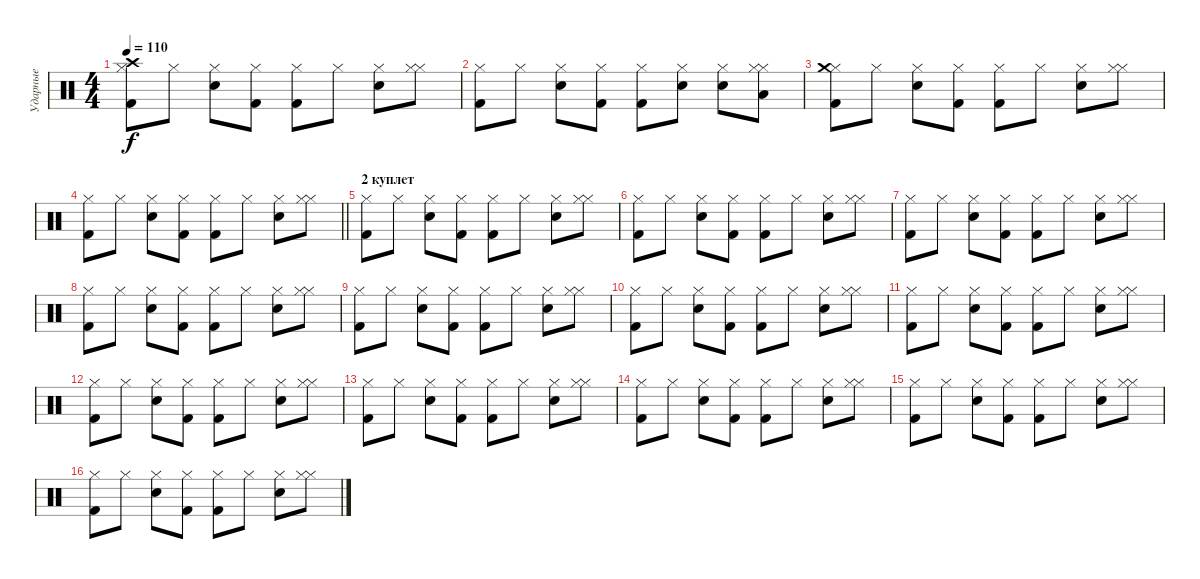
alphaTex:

\track ("Ударные" "Ударные") {instrument percussion}
\staff {score}
\articulation defaults
\ts (4 4)
\tempo 110
\clef neutral
\ks c
("Kick (hit) 2" "Hi-Hat (closed)" "Crash high (hit)").8{dy f} "Hi-Hat (closed)".8 ("Electric Snare (hit)" "Hi-Hat (closed)").8 ("Kick (hit) 2" "Hi-Hat (closed)").8 ("Kick (hit) 2" "Hi-Hat (closed)").8 "Hi-Hat (closed)".8 ("Electric Snare (hit)" "Hi-Hat (closed)").8 ("Hi-Hat (closed)" "Hi-Hat (closed)").8 |
("Kick (hit) 2" "Hi-Hat (closed)").8 "Hi-Hat (closed)".8 ("Electric Snare (hit)" "Hi-Hat (closed)").8 ("Kick (hit) 2" "Hi-Hat (closed)").8 ("Kick (hit) 2" "Hi-Hat (closed)").8 ("Hi-Hat (closed)" "Electric Snare (hit)").8 ("Electric Snare (hit)" "Hi-Hat (closed)").8 ("Hi-Hat (closed)" "Hi-Hat (closed)" "Low Tom (hit)").8 |
("Kick (hit) 2" "Hi-Hat (closed)" "Crash medium (hit)").8 "Hi-Hat (closed)".8 ("Electric Snare (hit)" "Hi-Hat (closed)").8 ("Kick (hit) 2" "Hi-Hat (closed)").8 ("Kick (hit) 2" "Hi-Hat (closed)").8 "Hi-Hat (closed)".8 ("Electric Snare (hit)" "Hi-Hat (closed)").8 ("Hi-Hat (closed)" "Hi-Hat (closed)").8 |
\barLineRight lightlight
("Kick (hit) 2" "Hi-Hat (closed)").8 "Hi-Hat (closed)".8 ("Electric Snare (hit)" "Hi-Hat (closed)").8 ("Kick (hit) 2" "Hi-Hat (closed)").8 ("Kick (hit) 2" "Hi-Hat (closed)").8 "Hi-Hat (closed)".8 ("Electric Snare (hit)" "Hi-Hat (closed)").8 ("Hi-Hat (closed)" "Hi-Hat (closed)").8 |
\section ("" "2 куплет")
("Kick (hit) 2" "Hi-Hat (closed)").8 "Hi-Hat (closed)".8 ("Electric Snare (hit)" "Hi-Hat (closed)").8 ("Kick (hit) 2" "Hi-Hat (closed)").8 ("Kick (hit) 2" "Hi-Hat (closed)").8 "Hi-Hat (closed)".8 ("Electric Snare (hit)" "Hi-Hat (closed)").8 ("Hi-Hat (closed)" "Hi-Hat (closed)").8 |
("Kick (hit) 2" "Hi-Hat (closed)").8 "Hi-Hat (closed)".8 ("Electric Snare (hit)" "Hi-Hat (closed)").8 ("Kick (hit) 2" "Hi-Hat (closed)").8 ("Kick (hit) 2" "Hi-Hat (closed)").8 "Hi-Hat (closed)".8 ("Electric Snare (hit)" "Hi-Hat (closed)").8 ("Hi-Hat (closed)" "Hi-Hat (closed)").8 |
("Kick (hit) 2" "Hi-Hat (closed)").8 "Hi-Hat (closed)".8 ("Electric Snare (hit)" "Hi-Hat (closed)").8 ("Kick (hit) 2" "Hi-Hat (closed)").8 ("Kick (hit) 2" "Hi-Hat (closed)").8 "Hi-Hat (closed)".8 ("Electric Snare (hit)" "Hi-Hat (closed)").8 ("Hi-Hat (closed)" "Hi-Hat (closed)").8 |
("Kick (hit) 2" "Hi-Hat (closed)").8 "Hi-Hat (closed)".8 ("Electric Snare (hit)" "Hi-Hat (closed)").8 ("Kick (hit) 2" "Hi-Hat (closed)").8 ("Kick (hit) 2" "Hi-Hat (closed)").8 "Hi-Hat (closed)".8 ("Electric Snare (hit)" "Hi-Hat (closed)").8 ("Hi-Hat (closed)" "Hi-Hat (closed)").8 |
("Kick (hit) 2" "Hi-Hat (closed)").8 "Hi-Hat (closed)".8 ("Electric Snare (hit)" "Hi-Hat (closed)").8 ("Kick (hit) 2" "Hi-Hat (closed)").8 ("Kick (hit) 2" "Hi-Hat (closed)").8 "Hi-Hat (closed)".8 ("Electric Snare (hit)" "Hi-Hat (closed)").8 ("Hi-Hat (closed)" "Hi-Hat (closed)").8 |
("Kick (hit) 2" "Hi-Hat (closed)").8 "Hi-Hat (closed)".8 ("Electric Snare (hit)" "Hi-Hat (closed)").8 ("Kick (hit) 2" "Hi-Hat (closed)").8 ("Kick (hit) 2" "Hi-Hat (closed)").8 "Hi-Hat (closed)".8 ("Electric Snare (hit)" "Hi-Hat (closed)").8 ("Hi-Hat (closed)" "Hi-Hat (closed)").8 |
("Kick (hit) 2" "Hi-Hat (closed)").8 "Hi-Hat (closed)".8 ("Electric Snare (hit)" "Hi-Hat (closed)").8 ("Kick (hit) 2" "Hi-Hat (closed)").8 ("Kick (hit) 2" "Hi-Hat (closed)").8 "Hi-Hat (closed)".8 ("Electric Snare (hit)" "Hi-Hat (closed)").8 ("Hi-Hat (closed)" "Hi-Hat (closed)").8 |
("Kick (hit) 2" "Hi-Hat (closed)").8 "Hi-Hat (closed)".8 ("Electric Snare (hit)" "Hi-Hat (closed)").8 ("Kick (hit) 2" "Hi-Hat (closed)").8 ("Kick (hit) 2" "Hi-Hat (closed)").8 "Hi-Hat (closed)".8 ("Electric Snare (hit)" "Hi-Hat (closed)").8 ("Hi-Hat (closed)" "Hi-Hat (closed)").8 |
("Kick (hit) 2" "Hi-Hat (closed)").8 "Hi-Hat (closed)".8 ("Electric Snare (hit)" "Hi-Hat (closed)").8 ("Kick (hit) 2" "Hi-Hat (closed)").8 ("Kick (hit) 2" "Hi-Hat (closed)").8 "Hi-Hat (closed)".8 ("Electric Snare (hit)" "Hi-Hat (closed)").8 ("Hi-Hat (closed)" "Hi-Hat (closed)").8 |
("Kick (hit) 2" "Hi-Hat (closed)").8 "Hi-Hat (closed)".8 ("Electric Snare (hit)" "Hi-Hat (closed)").8 ("Kick (hit) 2" "Hi-Hat (closed)").8 ("Kick (hit) 2" "Hi-Hat (closed)").8 "Hi-Hat (closed)".8 ("Electric Snare (hit)" "Hi-Hat (closed)").8 ("Hi-Hat (closed)" "Hi-Hat (closed)").8 |
("Kick (hit) 2" "Hi-Hat (closed)").8 "Hi-Hat (closed)".8 ("Electric Snare (hit)" "Hi-Hat (closed)").8 ("Kick (hit) 2" "Hi-Hat (closed)").8 ("Kick (hit) 2" "Hi-Hat (closed)").8 "Hi-Hat (closed)".8 ("Electric Snare (hit)" "Hi-Hat (closed)").8 ("Hi-Hat (closed)" "Hi-Hat (closed)").8 |
("Kick (hit) 2" "Hi-Hat (closed)").8 "Hi-Hat (closed)".8 ("Electric Snare (hit)" "Hi-Hat (closed)").8 ("Kick (hit) 2" "Hi-Hat (closed)").8 ("Kick (hit) 2" "Hi-Hat (closed)").8 "Hi-Hat (closed)".8 ("Electric Snare (hit)" "Hi-Hat (closed)").8 ("Hi-Hat (closed)" "Hi-Hat (closed)").8
